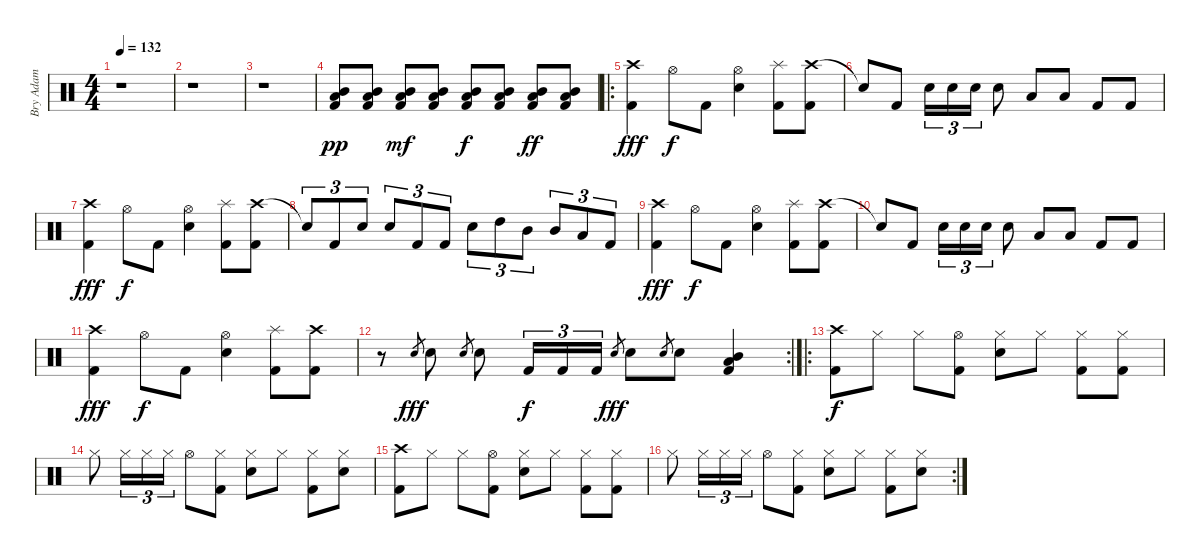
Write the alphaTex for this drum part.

\track ("Bry Adam" "Bry Adam") {instrument percussion}
\staff {score}
\articulation defaults
\ts (4 4)
\tempo 132
\clef neutral
\ks c
r.1{dy pp} |
r.1 |
r.1 |
("Mid Tom (hit)" "Low Tom (hit)" "Kick (hit) 2").8 ("Mid Tom (hit)" "Low Tom (hit)" "Kick (hit) 2").8 ("Mid Tom (hit)" "Low Tom (hit)" "Kick (hit) 2").8{dy mf} ("Mid Tom (hit)" "Low Tom (hit)" "Kick (hit) 2").8 ("Mid Tom (hit)" "Low Tom (hit)" "Kick (hit) 2").8{dy f} ("Mid Tom (hit)" "Low Tom (hit)" "Kick (hit) 2").8 ("Mid Tom (hit)" "Low Tom (hit)" "Kick (hit) 2").8{dy ff} ("Mid Tom (hit)" "Low Tom (hit)" "Kick (hit) 2").8 |
\ro
("Crash high (hit)" "Kick (hit) 2").4{dy fff} "Hi-Hat (open)".8{dy f} "Kick (hit) 2".8 ("Hi-Hat (open)" "Snare (hit) 2").4 ("Splash (hit)" "Kick (hit) 2").8 ("Crash high (hit)" "Kick (hit) 2").8 |
"Snare (hit)"{t}.8 "Kick (hit) 2".8 "Snare (hit) 2".16{tu (3 2)} "Snare (hit) 2".16{tu (3 2)} "Snare (hit) 2".16{tu (3 2)} "Snare (hit) 2".8 "Low Tom (hit)".8 "Low Tom (hit)".8 "Kick (hit) 2".8 "Kick (hit) 2".8 |
("Crash high (hit)" "Kick (hit) 2").4{dy fff} "Hi-Hat (open)".8{dy f} "Kick (hit) 2".8 ("Hi-Hat (open)" "Snare (hit) 2").4 ("Splash (hit)" "Kick (hit) 2").8 ("Crash high (hit)" "Kick (hit) 2").8 |
"Snare (hit)"{t}.8{tu (3 2)} "Kick (hit) 2".8{tu (3 2)} "Snare (hit) 2".8{tu (3 2)} "Snare (hit) 2".8{tu (3 2)} "Kick (hit) 2".8{tu (3 2)} "Kick (hit) 2".8{tu (3 2)} "Snare (hit) 2".8{tu (3 2)} "High Tom (hit)".8{tu (3 2)} "Mid Tom (hit)".8{tu (3 2)} "Mid Tom (hit)".8{tu (3 2)} "Low Tom (hit)".8{tu (3 2)} "Kick (hit) 2".8{tu (3 2)} |
("Crash high (hit)" "Kick (hit) 2").4{dy fff} "Hi-Hat (open)".8{dy f} "Kick (hit) 2".8 ("Hi-Hat (open)" "Snare (hit) 2").4 ("Splash (hit)" "Kick (hit) 2").8 ("Crash high (hit)" "Kick (hit) 2").8 |
"Snare (hit)"{t}.8 "Kick (hit) 2".8 "Snare (hit) 2".16{tu (3 2)} "Snare (hit) 2".16{tu (3 2)} "Snare (hit) 2".16{tu (3 2)} "Snare (hit) 2".8 "Low Tom (hit)".8 "Low Tom (hit)".8 "Kick (hit) 2".8 "Kick (hit) 2".8 |
("Crash high (hit)" "Kick (hit) 2").4{dy fff} "Hi-Hat (open)".8{dy f} "Kick (hit) 2".8 ("Hi-Hat (open)" "Snare (hit) 2").4 ("Splash (hit)" "Kick (hit) 2").8 ("Crash high (hit)" "Kick (hit) 2").8 |
\rc 2
r.8 "Snare (hit) 2".8{gr dy fff} "Snare (hit) 2".8 "Snare (hit) 2".8{gr} "Snare (hit) 2".8 "Kick (hit) 2".16{tu (3 2) dy f} "Kick (hit) 2".16{tu (3 2)} "Kick (hit) 2".16{tu (3 2)} "Snare (hit) 2".8{gr dy fff} "Snare (hit) 2".8 "Snare (hit) 2".8{gr} "Snare (hit) 2".8 ("Mid Tom (hit)" "Low Tom (hit)" "Kick (hit) 2").4 |
\ro
("Crash high (hit)" "Kick (hit) 2").8{dy f} "Hi-Hat (closed)".8 "Hi-Hat (closed)".8 ("Hi-Hat (open)" "Kick (hit) 2").8 ("Hi-Hat (closed)" "Snare (hit) 2").8 "Hi-Hat (closed)".8 ("Hi-Hat (closed)" "Kick (hit) 2").8 ("Hi-Hat (closed)" "Kick (hit) 2").8 |
"Hi-Hat (closed)".8 "Hi-Hat (closed)".16{tu (3 2)} "Hi-Hat (closed)".16{tu (3 2)} "Hi-Hat (closed)".16{tu (3 2)} "Hi-Hat (open)".8 ("Hi-Hat (closed)" "Kick (hit) 2").8 ("Hi-Hat (closed)" "Snare (hit) 2").8 "Hi-Hat (closed)".8 ("Hi-Hat (closed)" "Kick (hit) 2").8 ("Hi-Hat (closed)" "Snare (hit) 2").8 |
("Crash high (hit)" "Kick (hit) 2").8 "Hi-Hat (closed)".8 "Hi-Hat (closed)".8 ("Hi-Hat (open)" "Kick (hit) 2").8 ("Hi-Hat (closed)" "Snare (hit) 2").8 "Hi-Hat (closed)".8 ("Hi-Hat (closed)" "Kick (hit) 2").8 ("Hi-Hat (closed)" "Kick (hit) 2").8 |
\rc 2 "Hi-Hat (closed)".8 "Hi-Hat (closed)".16{tu (3 2)} "Hi-Hat (closed)".16{tu (3 2)} "Hi-Hat (closed)".16{tu (3 2)} "Hi-Hat (open)".8
("Hi-Hat (closed)" "Kick (hit) 2").8 ("Hi-Hat (closed)" "Snare (hit) 2").8 "Hi-Hat (closed)".8 ("Hi-Hat (closed)" "Kick (hit) 2").8 ("Hi-Hat (closed)" "Snare (hit) 2").8
